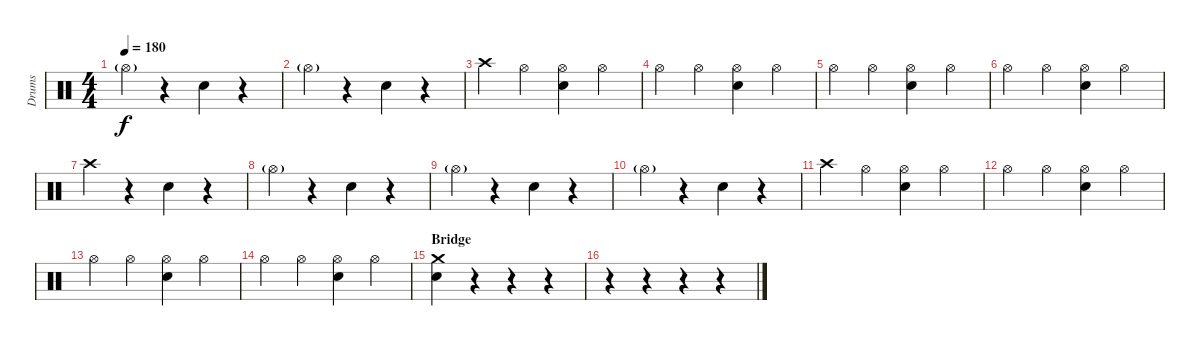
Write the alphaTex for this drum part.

\track ("Drums" "Drums") {instrument percussion}
\staff {score}
\articulation defaults
\ts (4 4)
\tempo 180
\clef neutral
\ks c "Hi-Hat (open)"{g}.4{dy f}
r.4 "Electric Snare (hit)".4 r.4 |
"Hi-Hat (open)"{g}.4 r.4 "Electric Snare (hit)".4 r.4 |
"Crash high (hit)".4 "Hi-Hat (open)".4 ("Hi-Hat (open)" "Electric Snare (hit)").4 "Hi-Hat (open)".4 |
"Hi-Hat (open)".4 "Hi-Hat (open)".4 ("Hi-Hat (open)" "Electric Snare (hit)").4 "Hi-Hat (open)".4 |
"Hi-Hat (open)".4 "Hi-Hat (open)".4 ("Hi-Hat (open)" "Electric Snare (hit)").4 "Hi-Hat (open)".4 |
"Hi-Hat (open)".4 "Hi-Hat (open)".4 ("Hi-Hat (open)" "Electric Snare (hit)").4 "Hi-Hat (open)".4 |
"Crash high (hit)".4 r.4 "Electric Snare (hit)".4 r.4 |
"Hi-Hat (open)"{g}.4 r.4 "Electric Snare (hit)".4 r.4 |
"Hi-Hat (open)"{g}.4 r.4 "Electric Snare (hit)".4 r.4 |
"Hi-Hat (open)"{g}.4 r.4 "Electric Snare (hit)".4 r.4 |
"Crash high (hit)".4 "Hi-Hat (open)".4 ("Hi-Hat (open)" "Electric Snare (hit)").4 "Hi-Hat (open)".4 |
"Hi-Hat (open)".4 "Hi-Hat (open)".4 ("Hi-Hat (open)" "Electric Snare (hit)").4 "Hi-Hat (open)".4 |
"Hi-Hat (open)".4 "Hi-Hat (open)".4 ("Hi-Hat (open)" "Electric Snare (hit)").4 "Hi-Hat (open)".4 |
"Hi-Hat (open)".4 "Hi-Hat (open)".4 ("Hi-Hat (open)" "Electric Snare (hit)").4 "Hi-Hat (open)".4 |
\section ("" "Bridge")
("Crash medium (hit)" "Electric Snare (hit)").4 r.4 r.4 r.4 |
r.4 r.4 r.4 r.4
